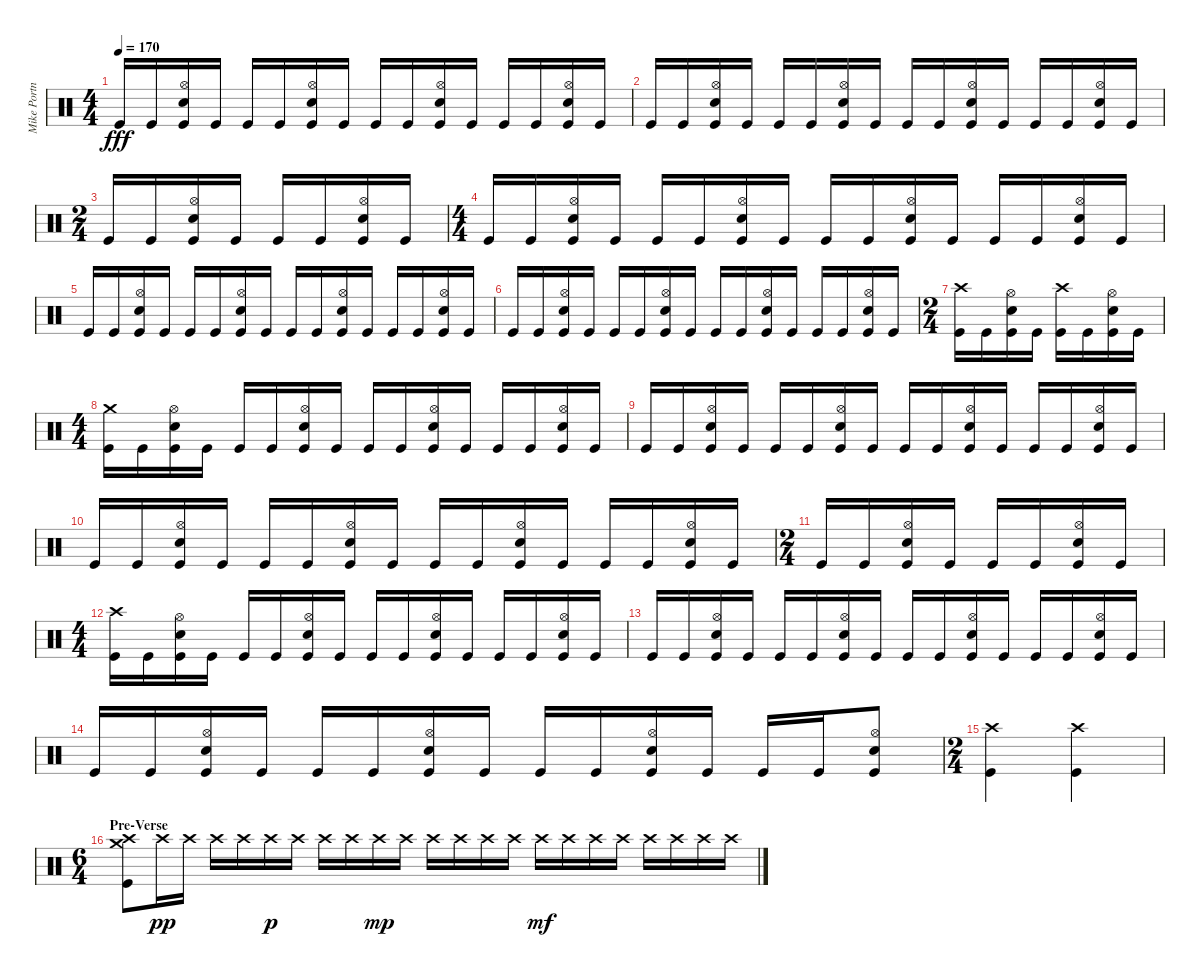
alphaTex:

\track ("Mike Portnoy" "Mike Portn") {instrument percussion}
\staff {score}
\articulation defaults
\ts (4 4)
\tempo 170
\clef neutral
\ks c "Kick (hit)".16{dy fff} "Kick (hit)".16
("Hi-Hat (open)" "Electric Snare (hit)" "Kick (hit)").16 "Kick (hit)".16 "Kick (hit)".16 "Kick (hit)".16 ("Hi-Hat (open)" "Electric Snare (hit)" "Kick (hit)").16 "Kick (hit)".16 "Kick (hit)".16 "Kick (hit)".16 ("Hi-Hat (open)" "Electric Snare (hit)" "Kick (hit)").16 "Kick (hit)".16 "Kick (hit)".16 "Kick (hit)".16 ("Hi-Hat (open)" "Electric Snare (hit)" "Kick (hit)").16 "Kick (hit)".16 |
"Kick (hit)".16 "Kick (hit)".16 ("Hi-Hat (open)" "Electric Snare (hit)" "Kick (hit)").16 "Kick (hit)".16 "Kick (hit)".16 "Kick (hit)".16 ("Hi-Hat (open)" "Electric Snare (hit)" "Kick (hit)").16 "Kick (hit)".16 "Kick (hit)".16 "Kick (hit)".16 ("Hi-Hat (open)" "Electric Snare (hit)" "Kick (hit)").16 "Kick (hit)".16 "Kick (hit)".16 "Kick (hit)".16 ("Hi-Hat (open)" "Electric Snare (hit)" "Kick (hit)").16 "Kick (hit)".16 |
\ts (2 4)
"Kick (hit)".16 "Kick (hit)".16 ("Hi-Hat (open)" "Electric Snare (hit)" "Kick (hit)").16 "Kick (hit)".16 "Kick (hit)".16 "Kick (hit)".16 ("Hi-Hat (open)" "Electric Snare (hit)" "Kick (hit)").16 "Kick (hit)".16 |
\ts (4 4)
"Kick (hit)".16 "Kick (hit)".16 ("Hi-Hat (open)" "Electric Snare (hit)" "Kick (hit)").16 "Kick (hit)".16 "Kick (hit)".16 "Kick (hit)".16 ("Hi-Hat (open)" "Electric Snare (hit)" "Kick (hit)").16 "Kick (hit)".16 "Kick (hit)".16 "Kick (hit)".16 ("Hi-Hat (open)" "Electric Snare (hit)" "Kick (hit)").16 "Kick (hit)".16 "Kick (hit)".16 "Kick (hit)".16 ("Hi-Hat (open)" "Electric Snare (hit)" "Kick (hit)").16 "Kick (hit)".16 |
"Kick (hit)".16 "Kick (hit)".16 ("Hi-Hat (open)" "Electric Snare (hit)" "Kick (hit)").16 "Kick (hit)".16 "Kick (hit)".16 "Kick (hit)".16 ("Hi-Hat (open)" "Electric Snare (hit)" "Kick (hit)").16 "Kick (hit)".16 "Kick (hit)".16 "Kick (hit)".16 ("Hi-Hat (open)" "Electric Snare (hit)" "Kick (hit)").16 "Kick (hit)".16 "Kick (hit)".16 "Kick (hit)".16 ("Hi-Hat (open)" "Electric Snare (hit)" "Kick (hit)").16 "Kick (hit)".16 |
"Kick (hit)".16 "Kick (hit)".16 ("Hi-Hat (open)" "Electric Snare (hit)" "Kick (hit)").16 "Kick (hit)".16 "Kick (hit)".16 "Kick (hit)".16 ("Hi-Hat (open)" "Electric Snare (hit)" "Kick (hit)").16 "Kick (hit)".16 "Kick (hit)".16 "Kick (hit)".16 ("Hi-Hat (open)" "Electric Snare (hit)" "Kick (hit)").16 "Kick (hit)".16 "Kick (hit)".16 "Kick (hit)".16 ("Hi-Hat (open)" "Electric Snare (hit)" "Kick (hit)").16 "Kick (hit)".16 |
\ts (2 4)
("Crash high (hit)" "Kick (hit)").16 "Kick (hit)".16 ("Hi-Hat (open)" "Electric Snare (hit)" "Kick (hit)").16 "Kick (hit)".16 ("Crash high (hit)" "Kick (hit)").16 "Kick (hit)".16 ("Hi-Hat (open)" "Electric Snare (hit)" "Kick (hit)").16 "Kick (hit)".16 |
\ts (4 4)
("Crash medium (hit)" "Kick (hit)").16 "Kick (hit)".16 ("Hi-Hat (open)" "Electric Snare (hit)" "Kick (hit)").16 "Kick (hit)".16 "Kick (hit)".16 "Kick (hit)".16 ("Hi-Hat (open)" "Electric Snare (hit)" "Kick (hit)").16 "Kick (hit)".16 "Kick (hit)".16 "Kick (hit)".16 ("Hi-Hat (open)" "Electric Snare (hit)" "Kick (hit)").16 "Kick (hit)".16 "Kick (hit)".16 "Kick (hit)".16 ("Hi-Hat (open)" "Electric Snare (hit)" "Kick (hit)").16 "Kick (hit)".16 |
"Kick (hit)".16 "Kick (hit)".16 ("Hi-Hat (open)" "Electric Snare (hit)" "Kick (hit)").16 "Kick (hit)".16 "Kick (hit)".16 "Kick (hit)".16 ("Hi-Hat (open)" "Electric Snare (hit)" "Kick (hit)").16 "Kick (hit)".16 "Kick (hit)".16 "Kick (hit)".16 ("Hi-Hat (open)" "Electric Snare (hit)" "Kick (hit)").16 "Kick (hit)".16 "Kick (hit)".16 "Kick (hit)".16 ("Hi-Hat (open)" "Electric Snare (hit)" "Kick (hit)").16 "Kick (hit)".16 |
"Kick (hit)".16 "Kick (hit)".16 ("Hi-Hat (open)" "Electric Snare (hit)" "Kick (hit)").16 "Kick (hit)".16 "Kick (hit)".16 "Kick (hit)".16 ("Hi-Hat (open)" "Electric Snare (hit)" "Kick (hit)").16 "Kick (hit)".16 "Kick (hit)".16 "Kick (hit)".16 ("Hi-Hat (open)" "Electric Snare (hit)" "Kick (hit)").16 "Kick (hit)".16 "Kick (hit)".16 "Kick (hit)".16 ("Hi-Hat (open)" "Electric Snare (hit)" "Kick (hit)").16 "Kick (hit)".16 |
\ts (2 4)
"Kick (hit)".16 "Kick (hit)".16 ("Hi-Hat (open)" "Electric Snare (hit)" "Kick (hit)").16 "Kick (hit)".16 "Kick (hit)".16 "Kick (hit)".16 ("Hi-Hat (open)" "Electric Snare (hit)" "Kick (hit)").16 "Kick (hit)".16 |
\ts (4 4)
("Crash high (hit)" "Kick (hit)").16 "Kick (hit)".16 ("Hi-Hat (open)" "Electric Snare (hit)" "Kick (hit)").16 "Kick (hit)".16 "Kick (hit)".16 "Kick (hit)".16 ("Hi-Hat (open)" "Electric Snare (hit)" "Kick (hit)").16 "Kick (hit)".16 "Kick (hit)".16 "Kick (hit)".16 ("Hi-Hat (open)" "Electric Snare (hit)" "Kick (hit)").16 "Kick (hit)".16 "Kick (hit)".16 "Kick (hit)".16 ("Hi-Hat (open)" "Electric Snare (hit)" "Kick (hit)").16 "Kick (hit)".16 |
"Kick (hit)".16 "Kick (hit)".16 ("Hi-Hat (open)" "Electric Snare (hit)" "Kick (hit)").16 "Kick (hit)".16 "Kick (hit)".16 "Kick (hit)".16 ("Hi-Hat (open)" "Electric Snare (hit)" "Kick (hit)").16 "Kick (hit)".16 "Kick (hit)".16 "Kick (hit)".16 ("Hi-Hat (open)" "Electric Snare (hit)" "Kick (hit)").16 "Kick (hit)".16 "Kick (hit)".16 "Kick (hit)".16 ("Hi-Hat (open)" "Electric Snare (hit)" "Kick (hit)").16 "Kick (hit)".16 |
"Kick (hit)".16 "Kick (hit)".16 ("Hi-Hat (open)" "Electric Snare (hit)" "Kick (hit)").16 "Kick (hit)".16 "Kick (hit)".16 "Kick (hit)".16 ("Hi-Hat (open)" "Electric Snare (hit)" "Kick (hit)").16 "Kick (hit)".16 "Kick (hit)".16 "Kick (hit)".16 ("Hi-Hat (open)" "Electric Snare (hit)" "Kick (hit)").16 "Kick (hit)".16 "Kick (hit)".16 "Kick (hit)".16 ("Hi-Hat (open)" "Electric Snare (hit)" "Kick (hit)").8 |
\ts (2 4)
("Crash high (hit)" "Kick (hit)").4 ("Crash high (hit)" "Kick (hit)").4 |
\ts (6 4)
\section ("" "Pre-Verse")
("Crash high (hit)" "Crash medium (hit)" "Kick (hit)").8 "Crash high (hit)".16{dy pp} "Crash high (hit)".16 "Crash high (hit)".16 "Crash high (hit)".16 "Crash high (hit)".16{dy p} "Crash high (hit)".16 "Crash high (hit)".16 "Crash high (hit)".16 "Crash high (hit)".16{dy mp} "Crash high (hit)".16 "Crash high (hit)".16 "Crash high (hit)".16 "Crash high (hit)".16 "Crash high (hit)".16 "Crash high (hit)".16{dy mf} "Crash high (hit)".16 "Crash high (hit)".16 "Crash high (hit)".16 "Crash high (hit)".16 "Crash high (hit)".16 "Crash high (hit)".16 "Crash high (hit)".16
